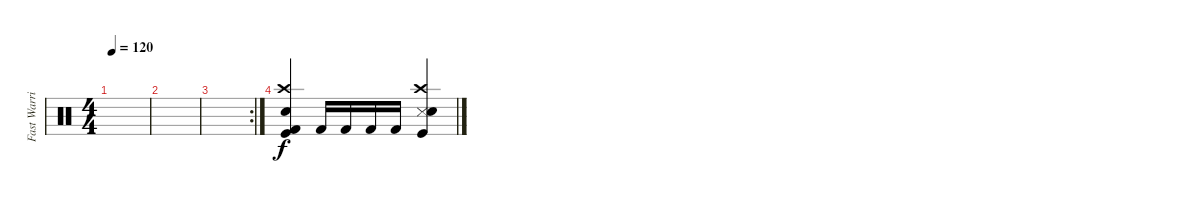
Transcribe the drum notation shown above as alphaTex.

\track ("Fast Warrior" "Fast Warri") {instrument percussion}
\staff {score}
\articulation defaults
\ts (4 4)
\tempo 120
\clef neutral
\ks c
|
|
\rc 2
|
("Kick (hit) 2" "Kick (hit)" "Crash high (hit)" "Electric Snare (hit)").4 "Kick (hit) 2".16 "Kick (hit) 2".16 "Kick (hit) 2".16 "Kick (hit) 2".16 ("Snare (side stick) 3" "Kick (hit)" "Electric Snare (hit)" "Crash high (hit)").4
